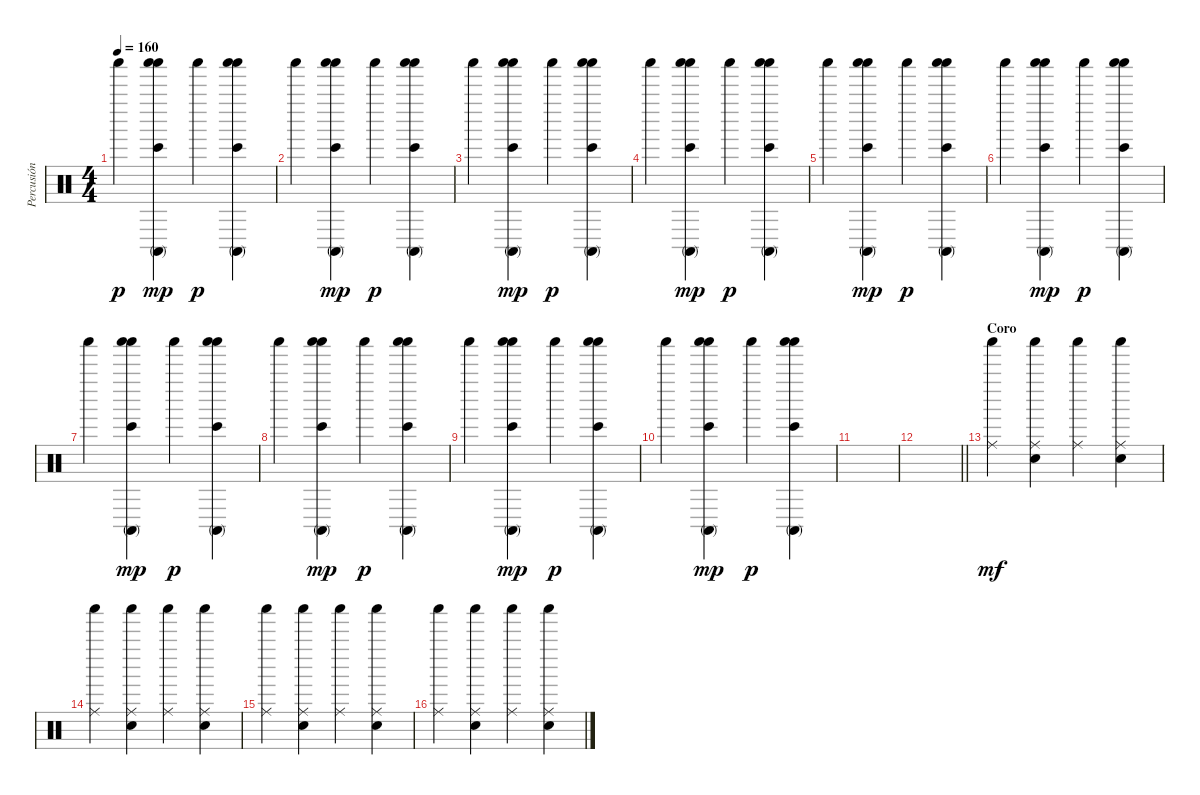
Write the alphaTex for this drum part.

\track ("Percusión" "Percusión") {instrument percussion}
\staff {score}
\articulation defaults
\ts (4 4)
\tempo 160
\clef neutral
\ks c "Shaker (hit)".4{dy p}
("Shaker (hit)" "Conga high (mute)" "Bongo High (hit)" "Shaker (hit)").4{dy mp} "Shaker (hit)".4{dy p} ("Shaker (hit)" "Conga high (mute)" "Bongo High (hit)" "Shaker (hit)").4 |
"Shaker (hit)".4 ("Shaker (hit)" "Conga high (mute)" "Bongo High (hit)" "Shaker (hit)").4{dy mp} "Shaker (hit)".4{dy p} ("Shaker (hit)" "Conga high (mute)" "Bongo High (hit)" "Shaker (hit)").4 |
"Shaker (hit)".4 ("Shaker (hit)" "Conga high (mute)" "Bongo High (hit)" "Shaker (hit)").4{dy mp} "Shaker (hit)".4{dy p} ("Shaker (hit)" "Conga high (mute)" "Bongo High (hit)" "Shaker (hit)").4 |
"Shaker (hit)".4 ("Shaker (hit)" "Conga high (mute)" "Bongo High (hit)" "Shaker (hit)").4{dy mp} "Shaker (hit)".4{dy p} ("Shaker (hit)" "Conga high (mute)" "Bongo High (hit)" "Shaker (hit)").4 |
"Shaker (hit)".4 ("Shaker (hit)" "Conga high (mute)" "Bongo High (hit)" "Shaker (hit)").4{dy mp} "Shaker (hit)".4{dy p} ("Shaker (hit)" "Conga high (mute)" "Bongo High (hit)" "Shaker (hit)").4 |
"Shaker (hit)".4 ("Shaker (hit)" "Conga high (mute)" "Bongo High (hit)" "Shaker (hit)").4{dy mp} "Shaker (hit)".4{dy p} ("Shaker (hit)" "Conga high (mute)" "Bongo High (hit)" "Shaker (hit)").4 |
"Shaker (hit)".4 ("Shaker (hit)" "Conga high (mute)" "Bongo High (hit)" "Shaker (hit)").4{dy mp} "Shaker (hit)".4{dy p} ("Shaker (hit)" "Conga high (mute)" "Bongo High (hit)" "Shaker (hit)").4 |
"Shaker (hit)".4 ("Shaker (hit)" "Conga high (mute)" "Bongo High (hit)" "Shaker (hit)").4{dy mp} "Shaker (hit)".4{dy p} ("Shaker (hit)" "Conga high (mute)" "Bongo High (hit)" "Shaker (hit)").4 |
"Shaker (hit)".4 ("Shaker (hit)" "Conga high (mute)" "Bongo High (hit)" "Shaker (hit)").4{dy mp} "Shaker (hit)".4{dy p} ("Shaker (hit)" "Conga high (mute)" "Bongo High (hit)" "Shaker (hit)").4 |
"Shaker (hit)".4 ("Shaker (hit)" "Conga high (mute)" "Bongo High (hit)" "Shaker (hit)").4{dy mp} "Shaker (hit)".4{dy p} ("Shaker (hit)" "Conga high (mute)" "Bongo High (hit)" "Shaker (hit)").4 |
|
\barLineRight lightlight
|
\section ("" "Coro")
("Shaker (hit)" "Ride (middle)").4{dy mf} ("Shaker (hit)" "Snare (hit) 2" "Ride (middle)").4 ("Shaker (hit)" "Ride (middle)").4 ("Shaker (hit)" "Snare (hit) 2" "Ride (middle)").4 |
("Shaker (hit)" "Ride (middle)").4 ("Shaker (hit)" "Snare (hit) 2" "Ride (middle)").4 ("Shaker (hit)" "Ride (middle)").4 ("Shaker (hit)" "Snare (hit) 2" "Ride (middle)").4 |
("Shaker (hit)" "Ride (middle)").4 ("Shaker (hit)" "Snare (hit) 2" "Ride (middle)").4 ("Shaker (hit)" "Ride (middle)").4 ("Shaker (hit)" "Snare (hit) 2" "Ride (middle)").4 |
("Shaker (hit)" "Ride (middle)").4 ("Shaker (hit)" "Snare (hit) 2" "Ride (middle)").4 ("Shaker (hit)" "Ride (middle)").4 ("Shaker (hit)" "Snare (hit) 2" "Ride (middle)").4
